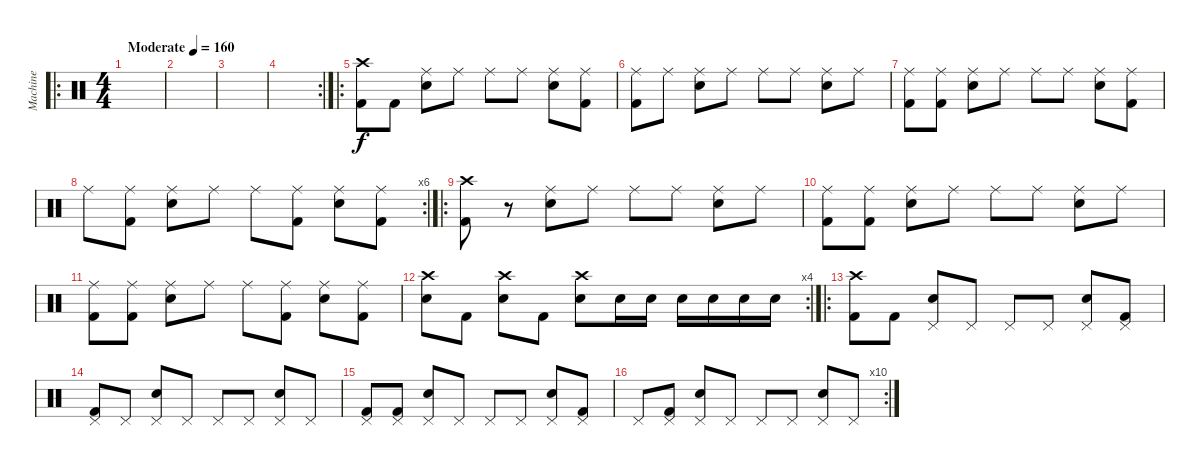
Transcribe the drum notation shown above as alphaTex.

\track ("Machine" "Machine") {instrument percussion}
\staff {score}
\articulation defaults
\ro
\ts (4 4)
\tempo (160 "Moderate")
\clef neutral
\ks c
|
|
|
\rc 2
|
\ro
("Crash high (hit)" "Kick (hit) 2").8 "Kick (hit) 2".8 ("Ride (middle)" "Electric Snare (hit)").8 "Ride (middle)".8 "Ride (middle)".8 "Ride (middle)".8 ("Ride (middle)" "Electric Snare (hit)").8 ("Ride (middle)" "Kick (hit) 2").8 |
("Ride (middle)" "Kick (hit) 2").8 "Ride (middle)".8 ("Ride (middle)" "Electric Snare (hit)").8 "Ride (middle)".8 "Ride (middle)".8 "Ride (middle)".8 ("Ride (middle)" "Electric Snare (hit)").8 "Ride (middle)".8 |
("Ride (middle)" "Kick (hit) 2").8 ("Ride (middle)" "Kick (hit) 2").8 ("Ride (middle)" "Electric Snare (hit)").8 "Ride (middle)".8 "Ride (middle)".8 "Ride (middle)".8 ("Ride (middle)" "Electric Snare (hit)").8 ("Ride (middle)" "Kick (hit) 2").8 |
\rc 6 "Ride (middle)".8
("Ride (middle)" "Kick (hit) 2").8 ("Ride (middle)" "Electric Snare (hit)").8 "Ride (middle)".8 "Ride (middle)".8 ("Ride (middle)" "Kick (hit) 2").8 ("Ride (middle)" "Electric Snare (hit)").8 ("Ride (middle)" "Kick (hit) 2").8 |
\ro
("Crash high (hit)" "Kick (hit) 2").8 r.8 ("Ride (middle)" "Electric Snare (hit)").8 "Ride (middle)".8 "Ride (middle)".8 "Ride (middle)".8 ("Ride (middle)" "Electric Snare (hit)").8 "Ride (middle)".8 |
("Ride (middle)" "Kick (hit) 2").8 ("Ride (middle)" "Kick (hit) 2").8 ("Ride (middle)" "Electric Snare (hit)").8 "Ride (middle)".8 "Ride (middle)".8 "Ride (middle)".8 ("Ride (middle)" "Electric Snare (hit)").8 "Ride (middle)".8 |
("Ride (middle)" "Kick (hit) 2").8 ("Ride (middle)" "Kick (hit) 2").8 ("Ride (middle)" "Electric Snare (hit)").8 "Ride (middle)".8 "Ride (middle)".8 ("Ride (middle)" "Kick (hit) 2").8 ("Ride (middle)" "Electric Snare (hit)").8 ("Ride (middle)" "Kick (hit) 2").8 |
\rc 4
("Crash high (hit)" "Electric Snare (hit)").8 "Kick (hit) 2".8 ("Crash high (hit)" "Electric Snare (hit)").8 "Kick (hit) 2".8 ("Crash high (hit)" "Electric Snare (hit)").8 "Electric Snare (hit)".16 "Electric Snare (hit)".16 "Electric Snare (hit)".16 "Electric Snare (hit)".16 "Electric Snare (hit)".16 "Electric Snare (hit)".16 |
\ro
("Crash high (hit)" "Kick (hit) 2").8 "Kick (hit) 2".8 ("Pedal Hi-Hat (hit)" "Electric Snare (hit)").8 "Pedal Hi-Hat (hit)".8 "Pedal Hi-Hat (hit)".8 "Pedal Hi-Hat (hit)".8 ("Pedal Hi-Hat (hit)" "Electric Snare (hit)").8 ("Pedal Hi-Hat (hit)" "Kick (hit) 2").8 |
("Pedal Hi-Hat (hit)" "Kick (hit) 2").8 "Pedal Hi-Hat (hit)".8 ("Pedal Hi-Hat (hit)" "Electric Snare (hit)").8 "Pedal Hi-Hat (hit)".8 "Pedal Hi-Hat (hit)".8 "Pedal Hi-Hat (hit)".8 ("Pedal Hi-Hat (hit)" "Electric Snare (hit)").8 "Pedal Hi-Hat (hit)".8 |
("Pedal Hi-Hat (hit)" "Kick (hit) 2").8 ("Pedal Hi-Hat (hit)" "Kick (hit) 2").8 ("Pedal Hi-Hat (hit)" "Electric Snare (hit)").8 "Pedal Hi-Hat (hit)".8 "Pedal Hi-Hat (hit)".8 "Pedal Hi-Hat (hit)".8 ("Pedal Hi-Hat (hit)" "Electric Snare (hit)").8 ("Pedal Hi-Hat (hit)" "Kick (hit) 2").8 |
\rc 10 "Pedal Hi-Hat (hit)".8
("Pedal Hi-Hat (hit)" "Kick (hit) 2").8 ("Pedal Hi-Hat (hit)" "Electric Snare (hit)").8 "Pedal Hi-Hat (hit)".8 "Pedal Hi-Hat (hit)".8 "Pedal Hi-Hat (hit)".8 ("Pedal Hi-Hat (hit)" "Electric Snare (hit)").8 "Pedal Hi-Hat (hit)".8
